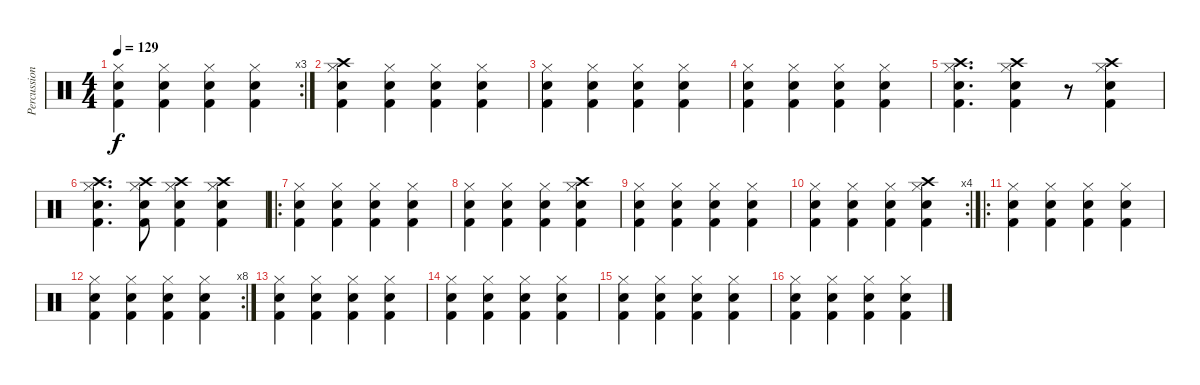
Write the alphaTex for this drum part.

\track ("Percussion" "Percussion") {instrument percussion}
\staff {score}
\articulation defaults
\rc 3
\ts (4 4)
\tempo 129
\clef neutral
\ks c
("Hi-Hat (closed)" "Electric Snare (hit)" "Kick (hit) 2").4{dy f} ("Hi-Hat (closed)" "Electric Snare (hit)" "Kick (hit) 2").4 ("Hi-Hat (closed)" "Electric Snare (hit)" "Kick (hit) 2").4 ("Hi-Hat (closed)" "Electric Snare (hit)" "Kick (hit) 2").4 |
("Crash high (hit)" "Hi-Hat (closed)" "Electric Snare (hit)" "Kick (hit) 2").4 ("Hi-Hat (closed)" "Electric Snare (hit)" "Kick (hit) 2").4 ("Hi-Hat (closed)" "Electric Snare (hit)" "Kick (hit) 2").4 ("Hi-Hat (closed)" "Electric Snare (hit)" "Kick (hit) 2").4 |
("Hi-Hat (closed)" "Electric Snare (hit)" "Kick (hit) 2").4 ("Hi-Hat (closed)" "Electric Snare (hit)" "Kick (hit) 2").4 ("Hi-Hat (closed)" "Electric Snare (hit)" "Kick (hit) 2").4 ("Hi-Hat (closed)" "Electric Snare (hit)" "Kick (hit) 2").4 |
("Hi-Hat (closed)" "Electric Snare (hit)" "Kick (hit) 2").4 ("Hi-Hat (closed)" "Electric Snare (hit)" "Kick (hit) 2").4 ("Hi-Hat (closed)" "Electric Snare (hit)" "Kick (hit) 2").4 ("Hi-Hat (closed)" "Electric Snare (hit)" "Kick (hit) 2").4 |
("Crash high (hit)" "Hi-Hat (closed)" "Electric Snare (hit)" "Kick (hit) 2").4{d} ("Crash high (hit)" "Hi-Hat (closed)" "Electric Snare (hit)" "Kick (hit) 2").4 r.8 ("Crash high (hit)" "Hi-Hat (closed)" "Electric Snare (hit)" "Kick (hit) 2").4 |
("Crash high (hit)" "Hi-Hat (closed)" "Electric Snare (hit)" "Kick (hit) 2").4{d} ("Crash high (hit)" "Hi-Hat (closed)" "Electric Snare (hit)" "Kick (hit) 2").8 ("Crash high (hit)" "Hi-Hat (closed)" "Electric Snare (hit)" "Kick (hit) 2").4 ("Crash high (hit)" "Hi-Hat (closed)" "Electric Snare (hit)" "Kick (hit) 2").4 |
\ro
("Hi-Hat (closed)" "Electric Snare (hit)" "Kick (hit) 2").4 ("Hi-Hat (closed)" "Electric Snare (hit)" "Kick (hit) 2").4 ("Hi-Hat (closed)" "Electric Snare (hit)" "Kick (hit) 2").4 ("Hi-Hat (closed)" "Electric Snare (hit)" "Kick (hit) 2").4 |
("Hi-Hat (closed)" "Electric Snare (hit)" "Kick (hit) 2").4 ("Hi-Hat (closed)" "Electric Snare (hit)" "Kick (hit) 2").4 ("Hi-Hat (closed)" "Electric Snare (hit)" "Kick (hit) 2").4 ("Crash high (hit)" "Hi-Hat (closed)" "Electric Snare (hit)" "Kick (hit) 2").4 |
("Hi-Hat (closed)" "Electric Snare (hit)" "Kick (hit) 2").4 ("Hi-Hat (closed)" "Electric Snare (hit)" "Kick (hit) 2").4 ("Hi-Hat (closed)" "Electric Snare (hit)" "Kick (hit) 2").4 ("Hi-Hat (closed)" "Electric Snare (hit)" "Kick (hit) 2").4 |
\rc 4
("Hi-Hat (closed)" "Electric Snare (hit)" "Kick (hit) 2").4 ("Hi-Hat (closed)" "Electric Snare (hit)" "Kick (hit) 2").4 ("Hi-Hat (closed)" "Electric Snare (hit)" "Kick (hit) 2").4 ("Crash high (hit)" "Hi-Hat (closed)" "Electric Snare (hit)" "Kick (hit) 2").4 |
\ro
("Hi-Hat (closed)" "Electric Snare (hit)" "Kick (hit) 2").4 ("Hi-Hat (closed)" "Electric Snare (hit)" "Kick (hit) 2").4 ("Hi-Hat (closed)" "Electric Snare (hit)" "Kick (hit) 2").4 ("Hi-Hat (closed)" "Electric Snare (hit)" "Kick (hit) 2").4 |
\rc 8
("Hi-Hat (closed)" "Electric Snare (hit)" "Kick (hit) 2").4 ("Hi-Hat (closed)" "Electric Snare (hit)" "Kick (hit) 2").4 ("Hi-Hat (closed)" "Electric Snare (hit)" "Kick (hit) 2").4 ("Hi-Hat (closed)" "Electric Snare (hit)" "Kick (hit) 2").4 |
("Hi-Hat (closed)" "Electric Snare (hit)" "Kick (hit) 2").4 ("Hi-Hat (closed)" "Electric Snare (hit)" "Kick (hit) 2").4 ("Hi-Hat (closed)" "Electric Snare (hit)" "Kick (hit) 2").4 ("Hi-Hat (closed)" "Electric Snare (hit)" "Kick (hit) 2").4 |
("Hi-Hat (closed)" "Electric Snare (hit)" "Kick (hit) 2").4 ("Hi-Hat (closed)" "Electric Snare (hit)" "Kick (hit) 2").4 ("Hi-Hat (closed)" "Electric Snare (hit)" "Kick (hit) 2").4 ("Hi-Hat (closed)" "Electric Snare (hit)" "Kick (hit) 2").4 |
("Hi-Hat (closed)" "Electric Snare (hit)" "Kick (hit) 2").4 ("Hi-Hat (closed)" "Electric Snare (hit)" "Kick (hit) 2").4 ("Hi-Hat (closed)" "Electric Snare (hit)" "Kick (hit) 2").4 ("Hi-Hat (closed)" "Electric Snare (hit)" "Kick (hit) 2").4 |
("Hi-Hat (closed)" "Electric Snare (hit)" "Kick (hit) 2").4 ("Hi-Hat (closed)" "Electric Snare (hit)" "Kick (hit) 2").4 ("Hi-Hat (closed)" "Electric Snare (hit)" "Kick (hit) 2").4 ("Hi-Hat (closed)" "Electric Snare (hit)" "Kick (hit) 2").4
